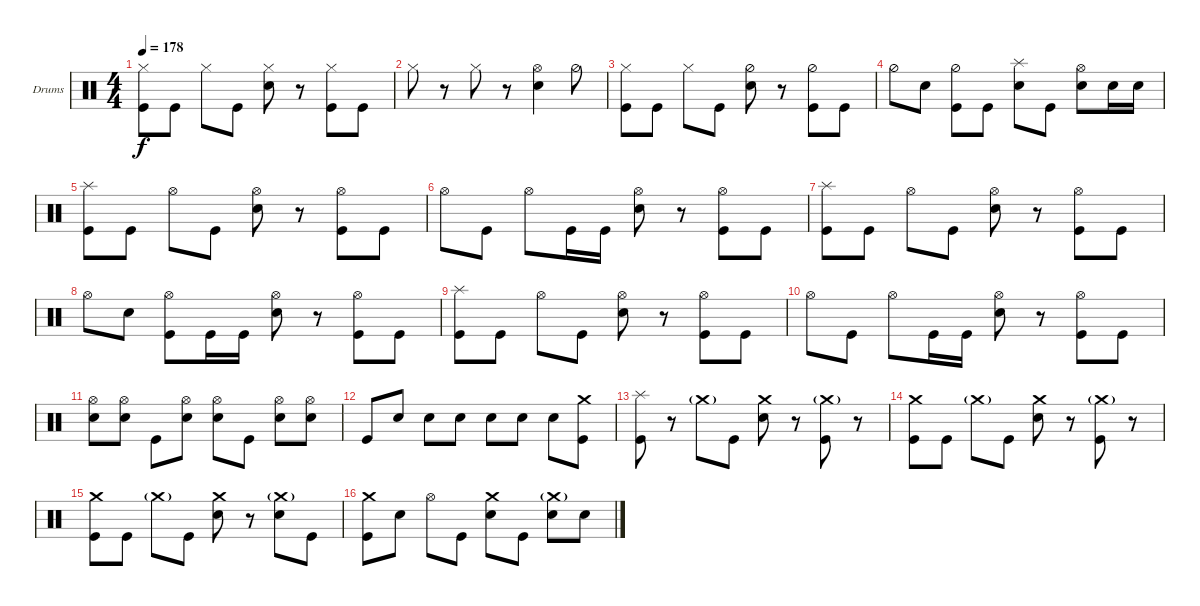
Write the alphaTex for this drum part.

\bracketExtendMode groupsimilarinstruments
\firstSystemTrackNameOrientation horizontal
\otherSystemsTrackNameOrientation horizontal
\track ("Drums" "Drums") {instrument percussion}
\staff {score}
\articulation defaults
\ts (4 4)
\tempo 178
\clef neutral
\ks c
("Hi-Hat (closed)" "Kick (hit)").8{dy f} "Kick (hit)".8 "Hi-Hat (closed)".8 "Kick (hit)".8 ("Hi-Hat (closed)" "Snare (hit) 2").8 r.8 ("Hi-Hat (closed)" "Kick (hit)").8 "Kick (hit)".8 |
"Hi-Hat (closed)".8 r.8 "Hi-Hat (closed)".8 r.8 ("Snare (hit) 2" "Hi-Hat (open)").4 "Hi-Hat (half)".8 |
("Hi-Hat (closed)" "Kick (hit)").8 "Kick (hit)".8 "Hi-Hat (closed)".8 "Kick (hit)".8 ("Hi-Hat (half)" "Snare (hit) 2").8 r.8 ("Hi-Hat (half)" "Kick (hit)").8 "Kick (hit)".8 |
"Hi-Hat (half)".8 "Snare (hit) 2".8 ("Hi-Hat (half)" "Kick (hit)").8 "Kick (hit)".8 ("Snare (hit) 2" "Splash (hit)").8 "Kick (hit)".8 ("Hi-Hat (open)" "Snare (hit) 2").8 "Snare (hit) 2".16 "Snare (hit) 2".16 |
("Kick (hit)" "Splash (hit)").8 "Kick (hit)".8 "Hi-Hat (open)".8 "Kick (hit)".8 ("Hi-Hat (open)" "Snare (hit) 2").8 r.8 ("Hi-Hat (open)" "Kick (hit)").8 "Kick (hit)".8 |
"Hi-Hat (open)".8 "Kick (hit)".8 "Hi-Hat (open)".8 "Kick (hit)".16 "Kick (hit)".16 ("Hi-Hat (open)" "Snare (hit) 2").8 r.8 ("Hi-Hat (open)" "Kick (hit)").8 "Kick (hit)".8 |
("Kick (hit)" "Splash (hit)").8 "Kick (hit)".8 "Hi-Hat (open)".8 "Kick (hit)".8 ("Hi-Hat (open)" "Snare (hit) 2").8 r.8 ("Hi-Hat (open)" "Kick (hit)").8 "Kick (hit)".8 |
"Hi-Hat (open)".8 "Snare (hit) 2".8 ("Hi-Hat (open)" "Kick (hit)").8 "Kick (hit)".16 "Kick (hit)".16 ("Hi-Hat (open)" "Snare (hit) 2").8 r.8 ("Hi-Hat (open)" "Kick (hit)").8 "Kick (hit)".8 |
("Kick (hit)" "Splash (hit)").8 "Kick (hit)".8 "Hi-Hat (open)".8 "Kick (hit)".8 ("Hi-Hat (open)" "Snare (hit) 2").8 r.8 ("Hi-Hat (open)" "Kick (hit)").8 "Kick (hit)".8 |
"Hi-Hat (open)".8 "Kick (hit)".8 "Hi-Hat (open)".8 "Kick (hit)".16 "Kick (hit)".16 ("Hi-Hat (open)" "Snare (hit) 2").8 r.8 ("Hi-Hat (open)" "Kick (hit)").8 "Kick (hit)".8 |
("Hi-Hat (open)" "Snare (hit) 2").8 ("Hi-Hat (open)" "Snare (hit) 2").8 "Kick (hit)".8 ("Hi-Hat (open)" "Snare (hit) 2").8 ("Hi-Hat (open)" "Snare (hit) 2").8 "Kick (hit)".8 ("Hi-Hat (open)" "Snare (hit) 2").8 ("Hi-Hat (open)" "Snare (hit) 2").8 |
"Kick (hit)".8 "Snare (hit) 2".8 "Snare (hit) 2".8 "Snare (hit) 2".8 "Snare (hit) 2".8 "Snare (hit) 2".8 "Snare (hit) 2".8 ("Kick (hit)" "Crash medium (hit)").8 |
("Splash (hit)" "Kick (hit)").8 r.8 "Crash medium (hit)"{g}.8 "Kick (hit)".8 ("Snare (hit) 2" "Crash medium (hit)").8 r.8 ("Kick (hit)" "Crash medium (hit)"{g}).8 r.8 |
("Kick (hit)" "Crash medium (hit)").8 "Kick (hit)".8 "Crash medium (hit)"{g}.8 "Kick (hit)".8 ("Snare (hit) 2" "Crash medium (hit)").8 r.8 ("Kick (hit)" "Crash medium (hit)"{g}).8 r.8 |
("Kick (hit)" "Crash medium (hit)").8 "Kick (hit)".8 "Crash medium (hit)"{g}.8 "Kick (hit)".8 ("Snare (hit) 2" "Crash medium (hit)").8 r.8 ("Snare (hit) 2" "Crash medium (hit)"{g}).8 "Kick (hit)".8 |
("Kick (hit)" "Crash medium (hit)").8 "Snare (hit) 2".8 "Hi-Hat (open)".8 "Kick (hit)".8 ("Snare (hit) 2" "Crash medium (hit)").8 "Kick (hit)".8 ("Snare (hit) 2" "Crash medium (hit)"{g}).8 "Snare (hit) 2".8
